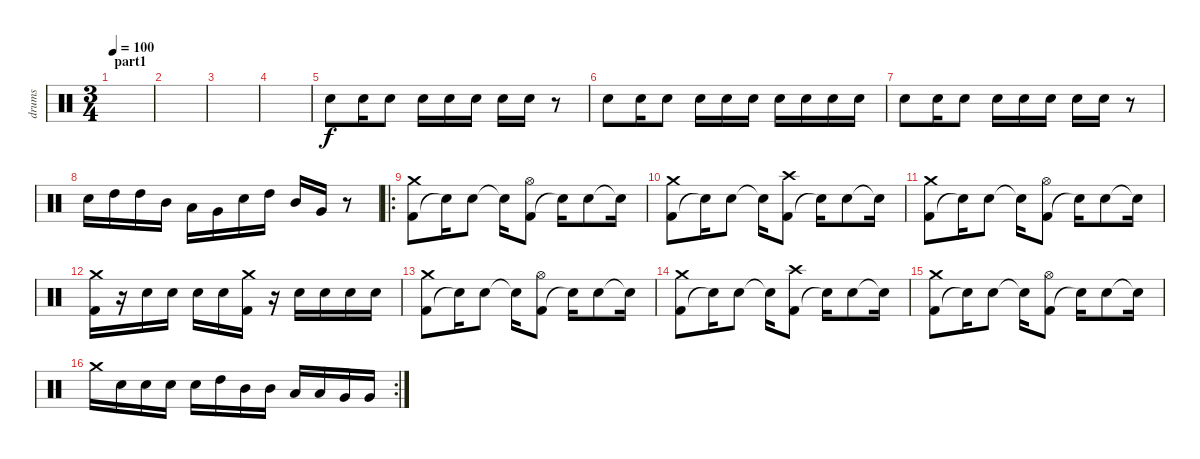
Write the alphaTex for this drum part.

\track ("drums" "drums") {instrument percussion}
\staff {score}
\articulation defaults
\ts (3 4)
\section ("" "part1")
\tempo 100
\clef neutral
\ks c
|
|
|
|
"Electric Snare (hit)".8 "Electric Snare (hit)".16 "Electric Snare (hit)".8 "Electric Snare (hit)".16 "Electric Snare (hit)".16 "Electric Snare (hit)".16 "Electric Snare (hit)".16 "Electric Snare (hit)".16 r.8 |
"Electric Snare (hit)".8 "Electric Snare (hit)".16 "Electric Snare (hit)".8 "Electric Snare (hit)".16 "Electric Snare (hit)".16 "Electric Snare (hit)".16 "Electric Snare (hit)".16 "Electric Snare (hit)".16 "Electric Snare (hit)".16 "Electric Snare (hit)".16 |
"Electric Snare (hit)".8 "Electric Snare (hit)".16 "Electric Snare (hit)".8 "Electric Snare (hit)".16 "Electric Snare (hit)".16 "Electric Snare (hit)".16 "Electric Snare (hit)".16 "Electric Snare (hit)".16 r.8 |
"Electric Snare (hit)".16 "High Tom (hit)".16 "High Tom (hit)".16 "Mid Tom (hit)".16 "Low Tom (hit)".16 "Very Low Tom (hit)".16 "Electric Snare (hit)".16 "High Tom (hit)".16 "Mid Tom (hit)".16 "Very Low Tom (hit)".16 r.8 |
\ro
("Kick (hit) 2" "Crash medium (hit)").8 "Snare (hit)"{t}.16 "Electric Snare (hit)".8 "Snare (hit)"{t}.16 ("Kick (hit) 2" "Hi-Hat (open)").8 "Snare (hit)"{t}.16 "Electric Snare (hit)".8 "Snare (hit)"{t}.16 |
("Kick (hit) 2" "Crash medium (hit)").8 "Snare (hit)"{t}.16 "Electric Snare (hit)".8 "Snare (hit)"{t}.16 ("Kick (hit) 2" "Crash high (hit)").8 "Snare (hit)"{t}.16 "Electric Snare (hit)".8 "Snare (hit)"{t}.16 |
("Kick (hit) 2" "Crash medium (hit)").8 "Snare (hit)"{t}.16 "Electric Snare (hit)".8 "Snare (hit)"{t}.16 ("Kick (hit) 2" "Hi-Hat (open)").8 "Snare (hit)"{t}.16 "Electric Snare (hit)".8 "Snare (hit)"{t}.16 |
("Kick (hit) 2" "Crash medium (hit)").16 r.16 "Electric Snare (hit)".16 "Electric Snare (hit)".16 "Electric Snare (hit)".16 "Electric Snare (hit)".16 ("Kick (hit) 2" "Crash medium (hit)").16 r.16 "Electric Snare (hit)".16 "Electric Snare (hit)".16 "Electric Snare (hit)".16 "Electric Snare (hit)".16 |
("Kick (hit) 2" "Crash medium (hit)").8 "Snare (hit)"{t}.16 "Electric Snare (hit)".8 "Snare (hit)"{t}.16 ("Kick (hit) 2" "Hi-Hat (open)").8 "Snare (hit)"{t}.16 "Electric Snare (hit)".8 "Snare (hit)"{t}.16 |
("Kick (hit) 2" "Crash medium (hit)").8 "Snare (hit)"{t}.16 "Electric Snare (hit)".8 "Snare (hit)"{t}.16 ("Kick (hit) 2" "Crash high (hit)").8 "Snare (hit)"{t}.16 "Electric Snare (hit)".8 "Snare (hit)"{t}.16 |
("Kick (hit) 2" "Crash medium (hit)").8 "Snare (hit)"{t}.16 "Electric Snare (hit)".8 "Snare (hit)"{t}.16 ("Kick (hit) 2" "Hi-Hat (open)").8 "Snare (hit)"{t}.16 "Electric Snare (hit)".8 "Snare (hit)"{t}.16 |
\rc 2 "Crash medium (hit)".16 "Electric Snare (hit)".16 "Electric Snare (hit)".16 "Electric Snare (hit)".16 "Electric Snare (hit)".16 "High Tom (hit)".16 "Mid Tom (hit)".16 "Mid Tom (hit)".16 "Low Tom (hit)".16 "Low Tom (hit)".16 "Very Low Tom (hit)".16 "Very Low Tom (hit)".16
